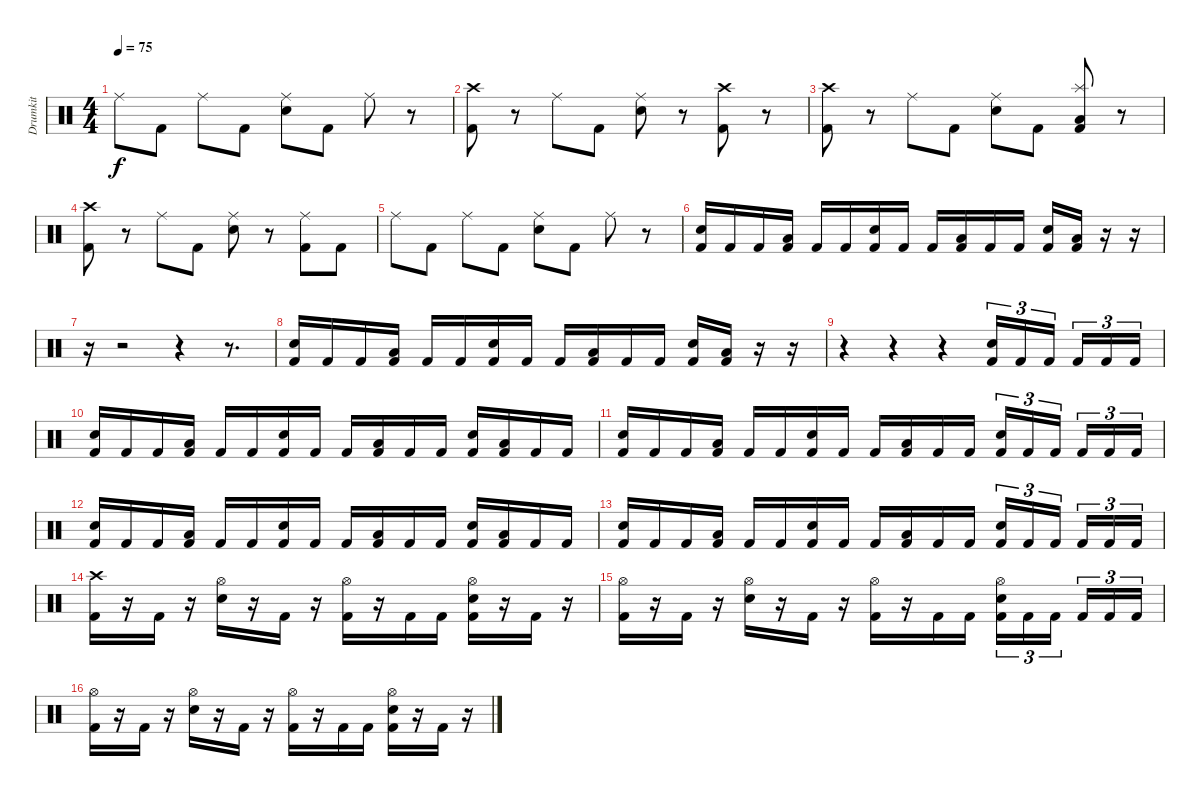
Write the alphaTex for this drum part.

\track ("Drumkit" "Drumkit") {instrument percussion}
\staff {score}
\articulation defaults
\ts (4 4)
\tempo 75
\clef neutral
\ks c "Ride (middle)".8{dy f} "Kick (hit) 2".8 "Ride (middle)".8 "Kick (hit) 2".8
("Ride (middle)" "Snare (hit) 2").8 "Kick (hit) 2".8 "Ride (middle)".8 r.8 |
("Crash high (hit)" "Kick (hit) 2").8 r.8 "Ride (middle)".8 "Kick (hit) 2".8 ("Ride (middle)" "Snare (hit) 2").8 r.8 ("Crash high (hit)" "Kick (hit) 2").8 r.8 |
("Crash high (hit)" "Kick (hit) 2").8 r.8 "Ride (middle)".8 "Kick (hit) 2".8 ("Ride (middle)" "Snare (hit) 2").8 "Kick (hit) 2".8 ("Splash (hit)" "Low Floor Tom (hit)" "Kick (hit) 2").8 r.8 |
("Crash high (hit)" "Kick (hit) 2").8 r.8 "Ride (middle)".8 "Kick (hit) 2".8 ("Ride (middle)" "Snare (hit) 2").8 r.8 ("Ride (middle)" "Kick (hit) 2").8 "Kick (hit) 2".8 |
"Ride (middle)".8 "Kick (hit) 2".8 "Ride (middle)".8 "Kick (hit) 2".8 ("Ride (middle)" "Snare (hit) 2").8 "Kick (hit) 2".8 "Ride (middle)".8 r.8 |
("Snare (hit) 2" "Kick (hit) 2").16 "Kick (hit) 2".16 "Kick (hit) 2".16 ("Low Floor Tom (hit)" "Kick (hit) 2").16 "Kick (hit) 2".16 "Kick (hit) 2".16 ("Snare (hit) 2" "Kick (hit) 2").16 "Kick (hit) 2".16 "Kick (hit) 2".16 ("Low Floor Tom (hit)" "Kick (hit) 2").16 "Kick (hit) 2".16 "Kick (hit) 2".16 ("Snare (hit) 2" "Kick (hit) 2").16 ("Low Floor Tom (hit)" "Kick (hit) 2").16 r.16 r.16 |
r.16 r.2 r.4 r.8{d} |
("Snare (hit) 2" "Kick (hit) 2").16 "Kick (hit) 2".16 "Kick (hit) 2".16 ("Low Floor Tom (hit)" "Kick (hit) 2").16 "Kick (hit) 2".16 "Kick (hit) 2".16 ("Snare (hit) 2" "Kick (hit) 2").16 "Kick (hit) 2".16 "Kick (hit) 2".16 ("Low Floor Tom (hit)" "Kick (hit) 2").16 "Kick (hit) 2".16 "Kick (hit) 2".16 ("Snare (hit) 2" "Kick (hit) 2").16 ("Low Floor Tom (hit)" "Kick (hit) 2").16 r.16 r.16 |
r.4 r.4 r.4 ("Snare (hit) 2" "Kick (hit) 2").16{tu (3 2)} "Kick (hit) 2".16{tu (3 2)} "Kick (hit) 2".16{tu (3 2)} "Kick (hit) 2".16{tu (3 2)} "Kick (hit) 2".16{tu (3 2)} "Kick (hit) 2".16{tu (3 2)} |
("Snare (hit) 2" "Kick (hit) 2").16 "Kick (hit) 2".16 "Kick (hit) 2".16 ("Low Floor Tom (hit)" "Kick (hit) 2").16 "Kick (hit) 2".16 "Kick (hit) 2".16 ("Snare (hit) 2" "Kick (hit) 2").16 "Kick (hit) 2".16 "Kick (hit) 2".16 ("Low Floor Tom (hit)" "Kick (hit) 2").16 "Kick (hit) 2".16 "Kick (hit) 2".16 ("Snare (hit) 2" "Kick (hit) 2").16 ("Low Floor Tom (hit)" "Kick (hit) 2").16 "Kick (hit) 2".16 "Kick (hit) 2".16 |
("Snare (hit) 2" "Kick (hit) 2").16 "Kick (hit) 2".16 "Kick (hit) 2".16 ("Low Floor Tom (hit)" "Kick (hit) 2").16 "Kick (hit) 2".16 "Kick (hit) 2".16 ("Snare (hit) 2" "Kick (hit) 2").16 "Kick (hit) 2".16 "Kick (hit) 2".16 ("Low Floor Tom (hit)" "Kick (hit) 2").16 "Kick (hit) 2".16 "Kick (hit) 2".16 ("Snare (hit) 2" "Kick (hit) 2").16{tu (3 2)} "Kick (hit) 2".16{tu (3 2)} "Kick (hit) 2".16{tu (3 2)} "Kick (hit) 2".16{tu (3 2)} "Kick (hit) 2".16{tu (3 2)} "Kick (hit) 2".16{tu (3 2)} |
("Snare (hit) 2" "Kick (hit) 2").16 "Kick (hit) 2".16 "Kick (hit) 2".16 ("Low Floor Tom (hit)" "Kick (hit) 2").16 "Kick (hit) 2".16 "Kick (hit) 2".16 ("Snare (hit) 2" "Kick (hit) 2").16 "Kick (hit) 2".16 "Kick (hit) 2".16 ("Low Floor Tom (hit)" "Kick (hit) 2").16 "Kick (hit) 2".16 "Kick (hit) 2".16 ("Snare (hit) 2" "Kick (hit) 2").16 ("Low Floor Tom (hit)" "Kick (hit) 2").16 "Kick (hit) 2".16 "Kick (hit) 2".16 |
("Snare (hit) 2" "Kick (hit) 2").16 "Kick (hit) 2".16 "Kick (hit) 2".16 ("Low Floor Tom (hit)" "Kick (hit) 2").16 "Kick (hit) 2".16 "Kick (hit) 2".16 ("Snare (hit) 2" "Kick (hit) 2").16 "Kick (hit) 2".16 "Kick (hit) 2".16 ("Low Floor Tom (hit)" "Kick (hit) 2").16 "Kick (hit) 2".16 "Kick (hit) 2".16 ("Snare (hit) 2" "Kick (hit) 2").16{tu (3 2)} "Kick (hit) 2".16{tu (3 2)} "Kick (hit) 2".16{tu (3 2)} "Kick (hit) 2".16{tu (3 2)} "Kick (hit) 2".16{tu (3 2)} "Kick (hit) 2".16{tu (3 2)} |
("Crash high (hit)" "Kick (hit) 2").16 r.16 "Kick (hit) 2".16 r.16 ("Hi-Hat (open)" "Snare (hit) 2").16 r.16 "Kick (hit) 2".16 r.16 ("Hi-Hat (open)" "Kick (hit) 2").16 r.16 "Kick (hit) 2".16 "Kick (hit) 2".16 ("Hi-Hat (open)" "Snare (hit) 2" "Kick (hit) 2").16 r.16 "Kick (hit) 2".16 r.16 |
("Hi-Hat (open)" "Kick (hit) 2").16 r.16 "Kick (hit) 2".16 r.16 ("Hi-Hat (open)" "Snare (hit) 2").16 r.16 "Kick (hit) 2".16 r.16 ("Hi-Hat (open)" "Kick (hit) 2").16 r.16 "Kick (hit) 2".16 "Kick (hit) 2".16 ("Hi-Hat (open)" "Snare (hit) 2" "Kick (hit) 2").16{tu (3 2)} "Kick (hit) 2".16{tu (3 2)} "Kick (hit) 2".16{tu (3 2)} "Kick (hit) 2".16{tu (3 2)} "Kick (hit) 2".16{tu (3 2)} "Kick (hit) 2".16{tu (3 2)} |
("Hi-Hat (open)" "Kick (hit) 2").16 r.16 "Kick (hit) 2".16 r.16 ("Hi-Hat (open)" "Snare (hit) 2").16 r.16 "Kick (hit) 2".16 r.16 ("Hi-Hat (open)" "Kick (hit) 2").16 r.16 "Kick (hit) 2".16 "Kick (hit) 2".16 ("Hi-Hat (open)" "Snare (hit) 2" "Kick (hit) 2").16 r.16 "Kick (hit) 2".16 r.16
